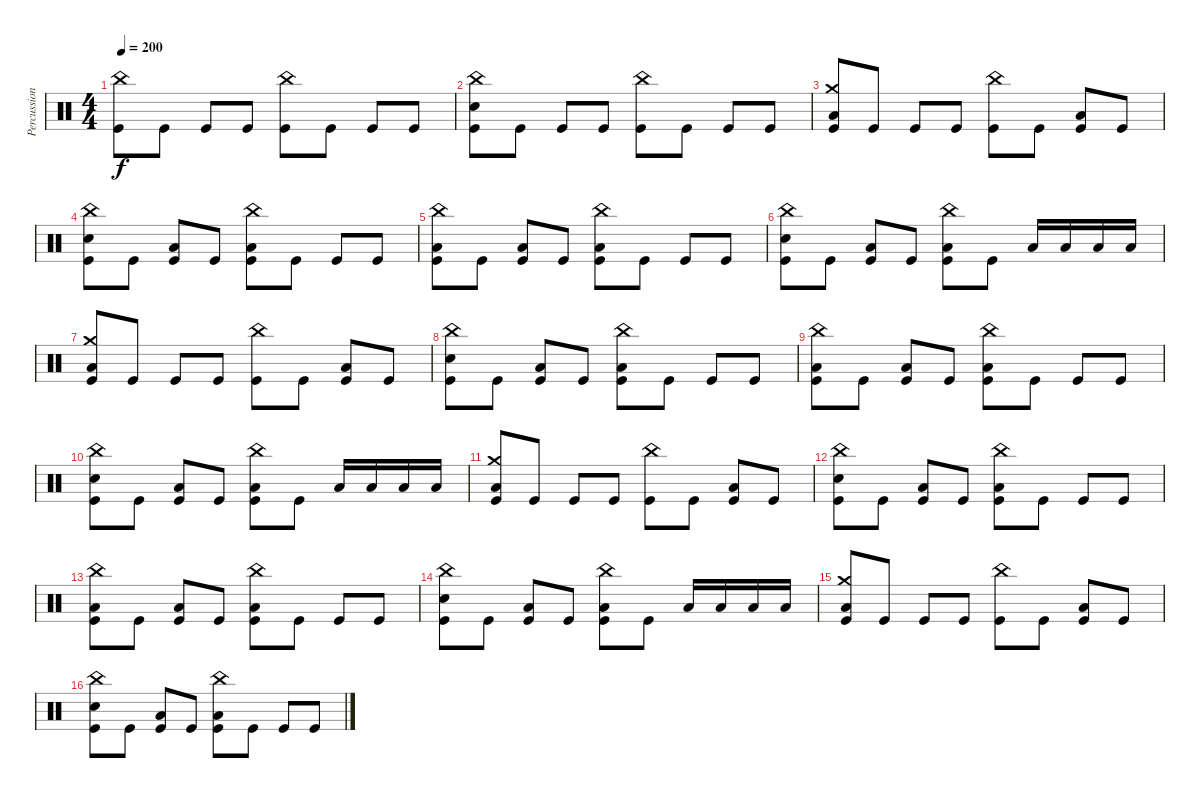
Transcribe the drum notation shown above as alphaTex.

\track ("Percussion" "Percussion") {instrument percussion}
\staff {score}
\articulation defaults
\ts (4 4)
\tempo 200
\clef neutral
\ks c
("China (hit)" "Kick (hit)").8{dy f} "Kick (hit)".8 "Kick (hit)".8 "Kick (hit)".8 ("China (hit)" "Kick (hit)").8 "Kick (hit)".8 "Kick (hit)".8 "Kick (hit)".8 |
("China (hit)" "Electric Snare (hit)" "Kick (hit)").8 "Kick (hit)".8 "Kick (hit)".8 "Kick (hit)".8 ("China (hit)" "Kick (hit)").8 "Kick (hit)".8 "Kick (hit)".8 "Kick (hit)".8 |
("Crash medium (hit)" "Low Tom (hit)" "Kick (hit)").8 "Kick (hit)".8 "Kick (hit)".8 "Kick (hit)".8 ("China (hit)" "Kick (hit)").8 "Kick (hit)".8 ("Low Tom (hit)" "Kick (hit)").8 "Kick (hit)".8 |
("China (hit)" "Electric Snare (hit)" "Kick (hit)").8 "Kick (hit)".8 ("Low Tom (hit)" "Kick (hit)").8 "Kick (hit)".8 ("China (hit)" "Low Tom (hit)" "Kick (hit)").8 "Kick (hit)".8 "Kick (hit)".8 "Kick (hit)".8 |
("China (hit)" "Low Tom (hit)" "Kick (hit)").8 "Kick (hit)".8 ("Low Tom (hit)" "Kick (hit)").8 "Kick (hit)".8 ("China (hit)" "Low Tom (hit)" "Kick (hit)").8 "Kick (hit)".8 "Kick (hit)".8 "Kick (hit)".8 |
("China (hit)" "Electric Snare (hit)" "Kick (hit)").8 "Kick (hit)".8 ("Low Tom (hit)" "Kick (hit)").8 "Kick (hit)".8 ("China (hit)" "Low Tom (hit)" "Kick (hit)").8 "Kick (hit)".8 "Low Tom (hit)".16 "Low Tom (hit)".16 "Low Tom (hit)".16 "Low Tom (hit)".16 |
("Crash medium (hit)" "Low Tom (hit)" "Kick (hit)").8 "Kick (hit)".8 "Kick (hit)".8 "Kick (hit)".8 ("China (hit)" "Kick (hit)").8 "Kick (hit)".8 ("Low Tom (hit)" "Kick (hit)").8 "Kick (hit)".8 |
("China (hit)" "Electric Snare (hit)" "Kick (hit)").8 "Kick (hit)".8 ("Low Tom (hit)" "Kick (hit)").8 "Kick (hit)".8 ("China (hit)" "Low Tom (hit)" "Kick (hit)").8 "Kick (hit)".8 "Kick (hit)".8 "Kick (hit)".8 |
("China (hit)" "Low Tom (hit)" "Kick (hit)").8 "Kick (hit)".8 ("Low Tom (hit)" "Kick (hit)").8 "Kick (hit)".8 ("China (hit)" "Low Tom (hit)" "Kick (hit)").8 "Kick (hit)".8 "Kick (hit)".8 "Kick (hit)".8 |
("China (hit)" "Electric Snare (hit)" "Kick (hit)").8 "Kick (hit)".8 ("Low Tom (hit)" "Kick (hit)").8 "Kick (hit)".8 ("China (hit)" "Low Tom (hit)" "Kick (hit)").8 "Kick (hit)".8 "Low Tom (hit)".16 "Low Tom (hit)".16 "Low Tom (hit)".16 "Low Tom (hit)".16 |
("Crash medium (hit)" "Low Tom (hit)" "Kick (hit)").8 "Kick (hit)".8 "Kick (hit)".8 "Kick (hit)".8 ("China (hit)" "Kick (hit)").8 "Kick (hit)".8 ("Low Tom (hit)" "Kick (hit)").8 "Kick (hit)".8 |
("China (hit)" "Electric Snare (hit)" "Kick (hit)").8 "Kick (hit)".8 ("Low Tom (hit)" "Kick (hit)").8 "Kick (hit)".8 ("China (hit)" "Low Tom (hit)" "Kick (hit)").8 "Kick (hit)".8 "Kick (hit)".8 "Kick (hit)".8 |
("China (hit)" "Low Tom (hit)" "Kick (hit)").8 "Kick (hit)".8 ("Low Tom (hit)" "Kick (hit)").8 "Kick (hit)".8 ("China (hit)" "Low Tom (hit)" "Kick (hit)").8 "Kick (hit)".8 "Kick (hit)".8 "Kick (hit)".8 |
("China (hit)" "Electric Snare (hit)" "Kick (hit)").8 "Kick (hit)".8 ("Low Tom (hit)" "Kick (hit)").8 "Kick (hit)".8 ("China (hit)" "Low Tom (hit)" "Kick (hit)").8 "Kick (hit)".8 "Low Tom (hit)".16 "Low Tom (hit)".16 "Low Tom (hit)".16 "Low Tom (hit)".16 |
("Crash medium (hit)" "Low Tom (hit)" "Kick (hit)").8 "Kick (hit)".8 "Kick (hit)".8 "Kick (hit)".8 ("China (hit)" "Kick (hit)").8 "Kick (hit)".8 ("Low Tom (hit)" "Kick (hit)").8 "Kick (hit)".8 |
("China (hit)" "Electric Snare (hit)" "Kick (hit)").8 "Kick (hit)".8 ("Low Tom (hit)" "Kick (hit)").8 "Kick (hit)".8 ("China (hit)" "Low Tom (hit)" "Kick (hit)").8 "Kick (hit)".8 "Kick (hit)".8 "Kick (hit)".8
